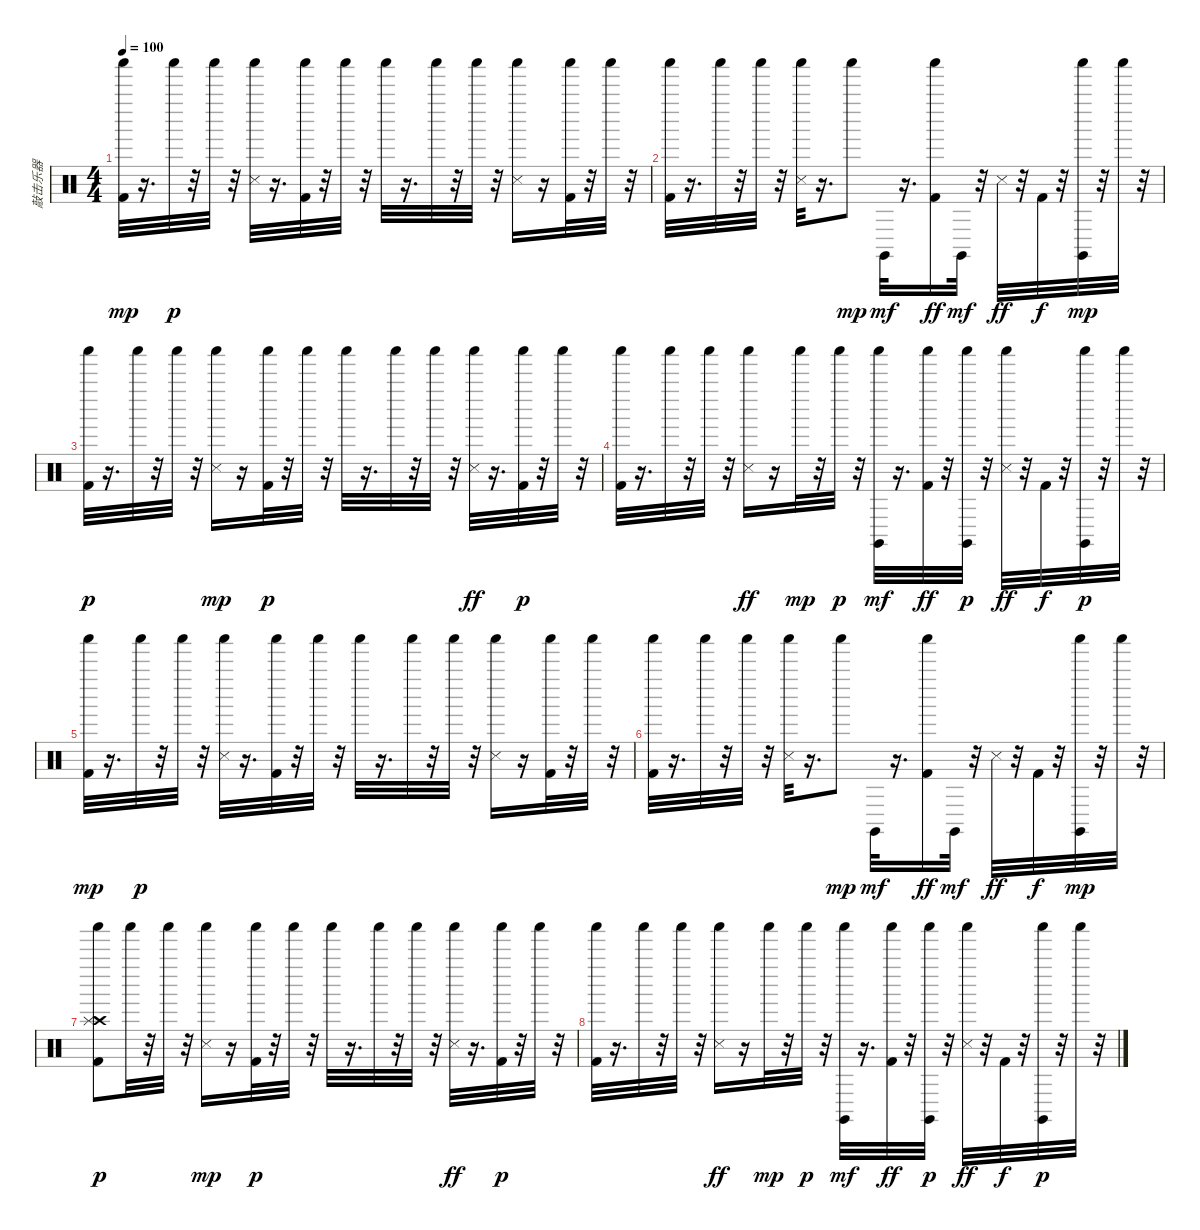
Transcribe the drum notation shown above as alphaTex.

\track ("敲击乐器" "敲击乐器") {instrument percussion}
\staff {score}
\articulation defaults
\ts (4 4)
\tempo 100
\clef neutral
\ks c
("Kick (hit) 2" "Shaker (hit)").32{dy mp} r.16{d} "Shaker (hit)".32{dy p} r.32 "Shaker (hit)".32 r.32 ("Snare (side stick) 3" "Shaker (hit)").32 r.16{d} ("Kick (hit) 2" "Shaker (hit)").32 r.32 "Shaker (hit)".32 r.32 "Shaker (hit)".32 r.16{d} "Shaker (hit)".32 r.32 "Shaker (hit)".32 r.32 ("Snare (side stick) 3" "Shaker (hit)").16 r.16 ("Kick (hit) 2" "Shaker (hit)").32 r.32 "Shaker (hit)".32 r.32 |
("Shaker (hit)" "Kick (hit) 2").32 r.16{d} "Shaker (hit)".32 r.32 "Shaker (hit)".32 r.32 ("Snare (side stick) 3" "Shaker (hit)").32 r.16{d} "Shaker (hit)".8{dy mp} "Claves (hit)".32{dy mf} r.16{d} ("Shaker (hit)" "Kick (hit) 2").16{dy ff} "Claves (hit)".32{dy mf} r.32 "Snare (side stick) 3".32{dy ff} r.32 "Kick (hit) 2".32{dy f} r.32 ("Claves (hit)" "Shaker (hit)").32{dy mp} r.32 "Shaker (hit)".32 r.32 |
("Shaker (hit)" "Kick (hit) 2").32{dy p} r.16{d} "Shaker (hit)".32 r.32 "Shaker (hit)".32 r.32 ("Shaker (hit)" "Snare (side stick) 3").16{dy mp} r.16 ("Kick (hit) 2" "Shaker (hit)").32{dy p} r.32 "Shaker (hit)".32 r.32 "Shaker (hit)".32 r.16{d} "Shaker (hit)".32 r.32 "Shaker (hit)".32 r.32 ("Shaker (hit)" "Snare (side stick) 3").32{dy ff} r.16{d} ("Kick (hit) 2" "Shaker (hit)").32{dy p} r.32 "Shaker (hit)".32 r.32 |
("Shaker (hit)" "Kick (hit) 2").32 r.16{d} "Shaker (hit)".32 r.32 "Shaker (hit)".32 r.32 ("Shaker (hit)" "Snare (side stick) 3").16{dy ff} r.16 "Shaker (hit)".32{dy mp} r.32 "Shaker (hit)".32{dy p} r.32 ("Shaker (hit)" "Claves (hit)").32{dy mf} r.16{d} ("Shaker (hit)" "Kick (hit) 2").32{dy ff} r.32 ("Claves (hit)" "Shaker (hit)").32{dy p} r.32 ("Shaker (hit)" "Snare (side stick) 3").32{dy ff} r.32 "Kick (hit) 2".32{dy f} r.32 ("Claves (hit)" "Shaker (hit)").32{dy p} r.32 "Shaker (hit)".32 r.32 |
("Kick (hit) 2" "Shaker (hit)").32{dy mp} r.16{d} "Shaker (hit)".32{dy p} r.32 "Shaker (hit)".32 r.32 ("Snare (side stick) 3" "Shaker (hit)").32 r.16{d} ("Kick (hit) 2" "Shaker (hit)").32 r.32 "Shaker (hit)".32 r.32 "Shaker (hit)".32 r.16{d} "Shaker (hit)".32 r.32 "Shaker (hit)".32 r.32 ("Snare (side stick) 3" "Shaker (hit)").16 r.16 ("Kick (hit) 2" "Shaker (hit)").32 r.32 "Shaker (hit)".32 r.32 |
("Shaker (hit)" "Kick (hit) 2").32 r.16{d} "Shaker (hit)".32 r.32 "Shaker (hit)".32 r.32 ("Snare (side stick) 3" "Shaker (hit)").32 r.16{d} "Shaker (hit)".8{dy mp} "Claves (hit)".32{dy mf} r.16{d} ("Shaker (hit)" "Kick (hit) 2").16{dy ff} "Claves (hit)".32{dy mf} r.32 "Snare (side stick) 3".32{dy ff} r.32 "Kick (hit) 2".32{dy f} r.32 ("Claves (hit)" "Shaker (hit)").32{dy mp} r.32 "Shaker (hit)".32 r.32 |
("Crash high (hit)" "Splash (hit)" "Shaker (hit)" "Kick (hit) 2").8{dy p} "Shaker (hit)".32 r.32 "Shaker (hit)".32 r.32 ("Shaker (hit)" "Snare (side stick) 3").16{dy mp} r.16 ("Kick (hit) 2" "Shaker (hit)").32{dy p} r.32 "Shaker (hit)".32 r.32 "Shaker (hit)".32 r.16{d} "Shaker (hit)".32 r.32 "Shaker (hit)".32 r.32 ("Shaker (hit)" "Snare (side stick) 3").32{dy ff} r.16{d} ("Kick (hit) 2" "Shaker (hit)").32{dy p} r.32 "Shaker (hit)".32 r.32 |
("Shaker (hit)" "Kick (hit) 2").32 r.16{d} "Shaker (hit)".32 r.32 "Shaker (hit)".32 r.32 ("Shaker (hit)" "Snare (side stick) 3").16{dy ff} r.16 "Shaker (hit)".32{dy mp} r.32 "Shaker (hit)".32{dy p} r.32 ("Shaker (hit)" "Claves (hit)").32{dy mf} r.16{d} ("Shaker (hit)" "Kick (hit) 2").32{dy ff} r.32 ("Claves (hit)" "Shaker (hit)").32{dy p} r.32 ("Shaker (hit)" "Snare (side stick) 3").32{dy ff} r.32 "Kick (hit) 2".32{dy f} r.32 ("Claves (hit)" "Shaker (hit)").32{dy p} r.32 "Shaker (hit)".32 r.32
